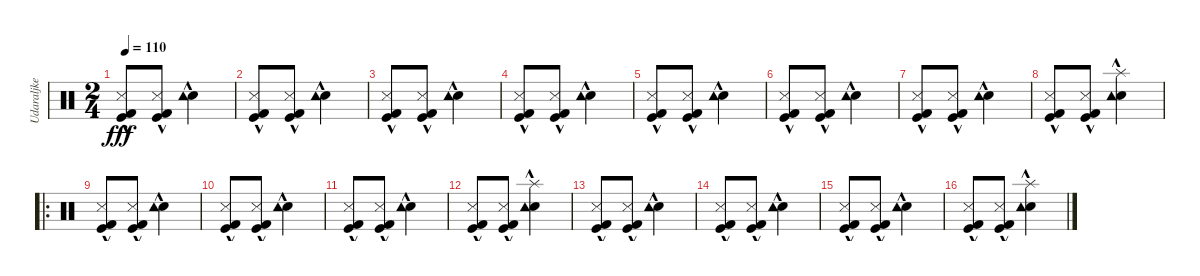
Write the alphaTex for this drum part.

\track ("Udaraljke" "Udaraljke") {instrument percussion}
\staff {score}
\articulation defaults
\ts (2 4)
\tempo 110
\clef neutral
\ks c
("Kick (hit) 2"{hac} "Kick (hit)"{hac} "Snare (side stick) 3"{hac}).8{dy fff} ("Kick (hit) 2"{hac} "Kick (hit)"{hac} "Snare (side stick) 3"{hac}).8 ("Snare (hit) 2"{hac} "Tambourine (hit)"{hac}).4 |
("Kick (hit) 2"{hac} "Kick (hit)"{hac} "Snare (side stick) 3"{hac}).8 ("Kick (hit) 2"{hac} "Kick (hit)"{hac} "Snare (side stick) 3"{hac}).8 ("Snare (hit) 2"{hac} "Tambourine (hit)"{hac}).4 |
("Kick (hit) 2"{hac} "Kick (hit)"{hac} "Snare (side stick) 3"{hac}).8 ("Kick (hit) 2"{hac} "Kick (hit)"{hac} "Snare (side stick) 3"{hac}).8 ("Snare (hit) 2"{hac} "Tambourine (hit)"{hac}).4 |
("Kick (hit) 2"{hac} "Kick (hit)"{hac} "Snare (side stick) 3"{hac}).8 ("Kick (hit) 2"{hac} "Kick (hit)"{hac} "Snare (side stick) 3"{hac}).8 ("Snare (hit) 2"{hac} "Tambourine (hit)"{hac}).4 |
("Kick (hit) 2"{hac} "Kick (hit)"{hac} "Snare (side stick) 3"{hac}).8 ("Kick (hit) 2"{hac} "Kick (hit)"{hac} "Snare (side stick) 3"{hac}).8 ("Snare (hit) 2"{hac} "Tambourine (hit)"{hac}).4 |
("Kick (hit) 2"{hac} "Kick (hit)"{hac} "Snare (side stick) 3"{hac}).8 ("Kick (hit) 2"{hac} "Kick (hit)"{hac} "Snare (side stick) 3"{hac}).8 ("Snare (hit) 2"{hac} "Tambourine (hit)"{hac}).4 |
("Kick (hit) 2"{hac} "Kick (hit)"{hac} "Snare (side stick) 3"{hac}).8 ("Kick (hit) 2"{hac} "Kick (hit)"{hac} "Snare (side stick) 3"{hac}).8 ("Snare (hit) 2"{hac} "Tambourine (hit)"{hac}).4 |
("Kick (hit) 2"{hac} "Kick (hit)"{hac} "Snare (side stick) 3"{hac}).8 ("Kick (hit) 2"{hac} "Kick (hit)"{hac} "Snare (side stick) 3"{hac}).8 ("Snare (hit) 2"{hac} "Splash (hit)"{hac} "Tambourine (hit)"{hac}).4 |
\ro
("Kick (hit) 2"{hac} "Kick (hit)"{hac} "Snare (side stick) 3"{hac}).8 ("Kick (hit) 2"{hac} "Kick (hit)"{hac} "Snare (side stick) 3"{hac}).8 ("Snare (hit) 2"{hac} "Tambourine (hit)"{hac}).4 |
("Kick (hit) 2"{hac} "Kick (hit)"{hac} "Snare (side stick) 3"{hac}).8 ("Kick (hit) 2"{hac} "Kick (hit)"{hac} "Snare (side stick) 3"{hac}).8 ("Snare (hit) 2"{hac} "Tambourine (hit)"{hac}).4 |
("Kick (hit) 2"{hac} "Kick (hit)"{hac} "Snare (side stick) 3"{hac}).8 ("Kick (hit) 2"{hac} "Kick (hit)"{hac} "Snare (side stick) 3"{hac}).8 ("Snare (hit) 2"{hac} "Tambourine (hit)"{hac}).4 |
("Kick (hit) 2"{hac} "Kick (hit)"{hac} "Snare (side stick) 3"{hac}).8 ("Kick (hit) 2"{hac} "Kick (hit)"{hac} "Snare (side stick) 3"{hac}).8 ("Snare (hit) 2"{hac} "Splash (hit)"{hac} "Tambourine (hit)"{hac}).4 |
("Kick (hit) 2"{hac} "Kick (hit)"{hac} "Snare (side stick) 3"{hac}).8 ("Kick (hit) 2"{hac} "Kick (hit)"{hac} "Snare (side stick) 3"{hac}).8 ("Snare (hit) 2"{hac} "Tambourine (hit)"{hac}).4 |
("Kick (hit) 2"{hac} "Kick (hit)"{hac} "Snare (side stick) 3"{hac}).8 ("Kick (hit) 2"{hac} "Kick (hit)"{hac} "Snare (side stick) 3"{hac}).8 ("Snare (hit) 2"{hac} "Tambourine (hit)"{hac}).4 |
("Kick (hit) 2"{hac} "Kick (hit)"{hac} "Snare (side stick) 3"{hac}).8 ("Kick (hit) 2"{hac} "Kick (hit)"{hac} "Snare (side stick) 3"{hac}).8 ("Snare (hit) 2"{hac} "Tambourine (hit)"{hac}).4 |
("Kick (hit) 2"{hac} "Kick (hit)"{hac} "Snare (side stick) 3"{hac}).8 ("Kick (hit) 2"{hac} "Kick (hit)"{hac} "Snare (side stick) 3"{hac}).8 ("Snare (hit) 2"{hac} "Splash (hit)"{hac} "Tambourine (hit)"{hac}).4
